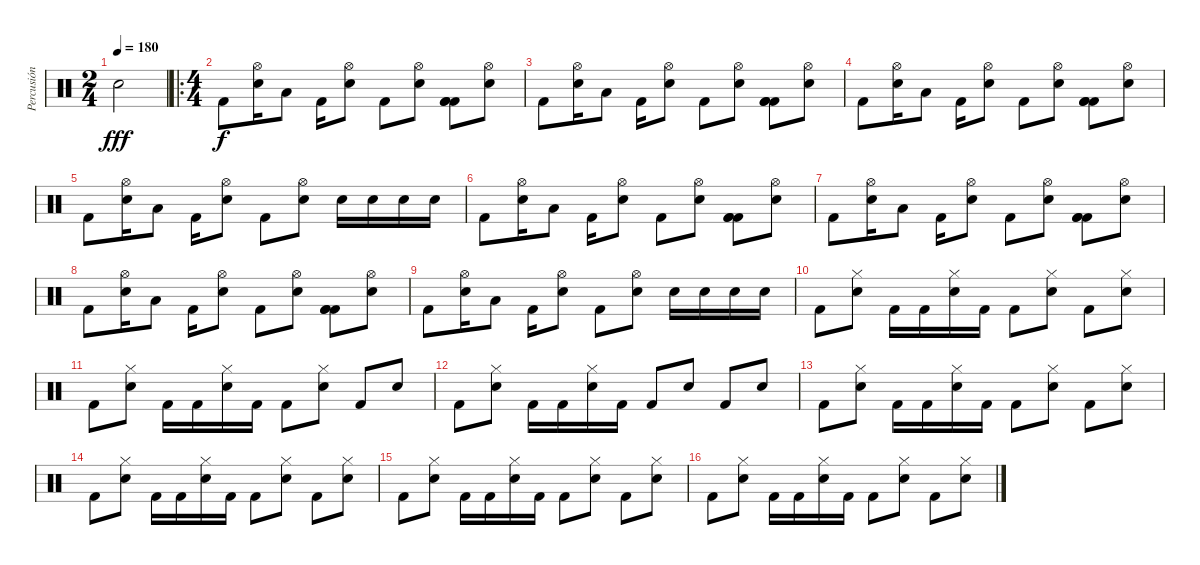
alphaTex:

\track ("Percusión" "Percusión") {instrument percussion}
\staff {score}
\articulation defaults
\ts (2 4)
\tempo 180
\clef neutral
\ks c "Electric Snare (hit)".2{dy fff}
|
\ro
\ts (4 4)
"Kick (hit) 2".8{dy f} ("Electric Snare (hit)" "Hi-Hat (open)").16 "Low Floor Tom (hit)".8 "Kick (hit) 2".16 ("Electric Snare (hit)" "Hi-Hat (open)").8 "Kick (hit) 2".8 ("Electric Snare (hit)" "Hi-Hat (open)").8 ("Kick (hit) 2" "Kick (hit) 2" "Kick (hit) 2").8 ("Electric Snare (hit)" "Hi-Hat (open)").8 |
"Kick (hit) 2".8 ("Electric Snare (hit)" "Hi-Hat (open)").16 "Low Floor Tom (hit)".8 "Kick (hit) 2".16 ("Electric Snare (hit)" "Hi-Hat (open)").8 "Kick (hit) 2".8 ("Electric Snare (hit)" "Hi-Hat (open)").8 ("Kick (hit) 2" "Kick (hit) 2" "Kick (hit) 2").8 ("Electric Snare (hit)" "Hi-Hat (open)").8 |
"Kick (hit) 2".8 ("Electric Snare (hit)" "Hi-Hat (open)").16 "Low Floor Tom (hit)".8 "Kick (hit) 2".16 ("Electric Snare (hit)" "Hi-Hat (open)").8 "Kick (hit) 2".8 ("Electric Snare (hit)" "Hi-Hat (open)").8 ("Kick (hit) 2" "Kick (hit) 2" "Kick (hit) 2").8 ("Electric Snare (hit)" "Hi-Hat (open)").8 |
"Kick (hit) 2".8 ("Electric Snare (hit)" "Hi-Hat (open)").16 "Low Floor Tom (hit)".8 "Kick (hit) 2".16 ("Electric Snare (hit)" "Hi-Hat (open)").8 "Kick (hit) 2".8 ("Electric Snare (hit)" "Hi-Hat (open)").8 "Electric Snare (hit)".16 "Electric Snare (hit)".16 "Electric Snare (hit)".16 "Electric Snare (hit)".16 |
"Kick (hit) 2".8 ("Electric Snare (hit)" "Hi-Hat (open)").16 "Low Floor Tom (hit)".8 "Kick (hit) 2".16 ("Electric Snare (hit)" "Hi-Hat (open)").8 "Kick (hit) 2".8 ("Electric Snare (hit)" "Hi-Hat (open)").8 ("Kick (hit) 2" "Kick (hit) 2" "Kick (hit) 2").8 ("Electric Snare (hit)" "Hi-Hat (open)").8 |
"Kick (hit) 2".8 ("Electric Snare (hit)" "Hi-Hat (open)").16 "Low Floor Tom (hit)".8 "Kick (hit) 2".16 ("Electric Snare (hit)" "Hi-Hat (open)").8 "Kick (hit) 2".8 ("Electric Snare (hit)" "Hi-Hat (open)").8 ("Kick (hit) 2" "Kick (hit) 2" "Kick (hit) 2").8 ("Electric Snare (hit)" "Hi-Hat (open)").8 |
"Kick (hit) 2".8 ("Electric Snare (hit)" "Hi-Hat (open)").16 "Low Floor Tom (hit)".8 "Kick (hit) 2".16 ("Electric Snare (hit)" "Hi-Hat (open)").8 "Kick (hit) 2".8 ("Electric Snare (hit)" "Hi-Hat (open)").8 ("Kick (hit) 2" "Kick (hit) 2" "Kick (hit) 2").8 ("Electric Snare (hit)" "Hi-Hat (open)").8 |
"Kick (hit) 2".8 ("Electric Snare (hit)" "Hi-Hat (open)").16 "Low Floor Tom (hit)".8 "Kick (hit) 2".16 ("Electric Snare (hit)" "Hi-Hat (open)").8 "Kick (hit) 2".8 ("Electric Snare (hit)" "Hi-Hat (open)").8 "Electric Snare (hit)".16 "Electric Snare (hit)".16 "Electric Snare (hit)".16 "Electric Snare (hit)".16 |
"Kick (hit) 2".8 ("Electric Snare (hit)" "Hi-Hat (closed)").8 "Kick (hit) 2".16 "Kick (hit) 2".16 ("Electric Snare (hit)" "Hi-Hat (closed)").16 "Kick (hit) 2".16 "Kick (hit) 2".8 ("Electric Snare (hit)" "Hi-Hat (closed)").8 "Kick (hit) 2".8 ("Electric Snare (hit)" "Hi-Hat (closed)").8 |
"Kick (hit) 2".8 ("Electric Snare (hit)" "Hi-Hat (closed)").8 "Kick (hit) 2".16 "Kick (hit) 2".16 ("Electric Snare (hit)" "Hi-Hat (closed)").16 "Kick (hit) 2".16 "Kick (hit) 2".8 ("Electric Snare (hit)" "Hi-Hat (closed)").8 "Kick (hit) 2".8 "Electric Snare (hit)".8 |
"Kick (hit) 2".8 ("Electric Snare (hit)" "Hi-Hat (closed)").8 "Kick (hit) 2".16 "Kick (hit) 2".16 ("Electric Snare (hit)" "Hi-Hat (closed)").16 "Kick (hit) 2".16 "Kick (hit) 2".8 "Electric Snare (hit)".8 "Kick (hit) 2".8 "Electric Snare (hit)".8 |
"Kick (hit) 2".8 ("Electric Snare (hit)" "Hi-Hat (closed)").8 "Kick (hit) 2".16 "Kick (hit) 2".16 ("Electric Snare (hit)" "Hi-Hat (closed)").16 "Kick (hit) 2".16 "Kick (hit) 2".8 ("Electric Snare (hit)" "Hi-Hat (closed)").8 "Kick (hit) 2".8 ("Electric Snare (hit)" "Hi-Hat (closed)").8 |
"Kick (hit) 2".8 ("Electric Snare (hit)" "Hi-Hat (closed)").8 "Kick (hit) 2".16 "Kick (hit) 2".16 ("Electric Snare (hit)" "Hi-Hat (closed)").16 "Kick (hit) 2".16 "Kick (hit) 2".8 ("Electric Snare (hit)" "Hi-Hat (closed)").8 "Kick (hit) 2".8 ("Electric Snare (hit)" "Hi-Hat (closed)").8 |
"Kick (hit) 2".8 ("Electric Snare (hit)" "Hi-Hat (closed)").8 "Kick (hit) 2".16 "Kick (hit) 2".16 ("Electric Snare (hit)" "Hi-Hat (closed)").16 "Kick (hit) 2".16 "Kick (hit) 2".8 ("Electric Snare (hit)" "Hi-Hat (closed)").8 "Kick (hit) 2".8 ("Electric Snare (hit)" "Hi-Hat (closed)").8 |
"Kick (hit) 2".8 ("Electric Snare (hit)" "Hi-Hat (closed)").8 "Kick (hit) 2".16 "Kick (hit) 2".16 ("Electric Snare (hit)" "Hi-Hat (closed)").16 "Kick (hit) 2".16 "Kick (hit) 2".8 ("Electric Snare (hit)" "Hi-Hat (closed)").8 "Kick (hit) 2".8 ("Electric Snare (hit)" "Hi-Hat (closed)").8
